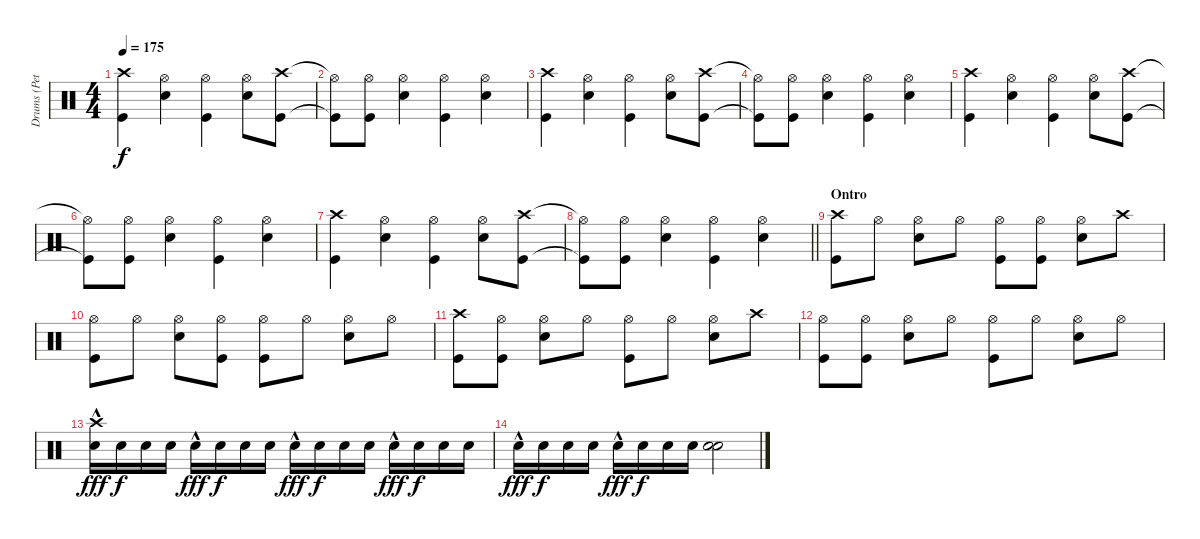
\track ("Drums (Peter Jensen)" "Drums (Pet") {instrument percussion}
\staff {score}
\articulation defaults
\ts (4 4)
\tempo 175
\clef neutral
\ks c
("Crash high (hit)" "Kick (hit)").4{dy f} ("Hi-Hat (open)" "Snare (hit) 2").4 ("Hi-Hat (open)" "Kick (hit)").4 ("Hi-Hat (open)" "Snare (hit) 2").8 ("Crash high (hit)" "Kick (hit)").8 |
("Hi-Hat (open)"{t} "Kick (hit)"{t}).8 ("Hi-Hat (open)" "Kick (hit)").8 ("Hi-Hat (open)" "Snare (hit) 2").4 ("Hi-Hat (open)" "Kick (hit)").4 ("Hi-Hat (open)" "Snare (hit) 2").4 |
("Crash high (hit)" "Kick (hit)").4 ("Hi-Hat (open)" "Snare (hit) 2").4 ("Hi-Hat (open)" "Kick (hit)").4 ("Hi-Hat (open)" "Snare (hit) 2").8 ("Crash high (hit)" "Kick (hit)").8 |
("Hi-Hat (open)"{t} "Kick (hit)"{t}).8 ("Hi-Hat (open)" "Kick (hit)").8 ("Hi-Hat (open)" "Snare (hit) 2").4 ("Hi-Hat (open)" "Kick (hit)").4 ("Hi-Hat (open)" "Snare (hit) 2").4 |
("Crash high (hit)" "Kick (hit)").4 ("Hi-Hat (open)" "Snare (hit) 2").4 ("Hi-Hat (open)" "Kick (hit)").4 ("Hi-Hat (open)" "Snare (hit) 2").8 ("Crash high (hit)" "Kick (hit)").8 |
("Hi-Hat (open)"{t} "Kick (hit)"{t}).8 ("Hi-Hat (open)" "Kick (hit)").8 ("Hi-Hat (open)" "Snare (hit) 2").4 ("Hi-Hat (open)" "Kick (hit)").4 ("Hi-Hat (open)" "Snare (hit) 2").4 |
("Crash high (hit)" "Kick (hit)").4 ("Hi-Hat (open)" "Snare (hit) 2").4 ("Hi-Hat (open)" "Kick (hit)").4 ("Hi-Hat (open)" "Snare (hit) 2").8 ("Crash high (hit)" "Kick (hit)").8 |
\barLineRight lightlight
("Hi-Hat (open)"{t} "Kick (hit)"{t}).8 ("Hi-Hat (open)" "Kick (hit)").8 ("Hi-Hat (open)" "Snare (hit) 2").4 ("Hi-Hat (open)" "Kick (hit)").4 ("Hi-Hat (open)" "Snare (hit) 2").4 |
\section ("" "Ontro")
("Crash high (hit)" "Kick (hit)").8 "Hi-Hat (open)".8 ("Hi-Hat (open)" "Snare (hit) 2").8 "Hi-Hat (open)".8 ("Hi-Hat (open)" "Kick (hit)").8 ("Hi-Hat (open)" "Kick (hit)").8 ("Hi-Hat (open)" "Snare (hit) 2").8 "Crash high (hit)".8 |
("Hi-Hat (open)" "Kick (hit)").8 "Hi-Hat (open)".8 ("Hi-Hat (open)" "Snare (hit) 2").8 ("Hi-Hat (open)" "Kick (hit)").8 ("Hi-Hat (open)" "Kick (hit)").8 "Hi-Hat (open)".8 ("Hi-Hat (open)" "Snare (hit) 2").8 "Hi-Hat (open)".8 |
("Crash high (hit)" "Kick (hit)").8 ("Hi-Hat (open)" "Kick (hit)").8 ("Hi-Hat (open)" "Snare (hit) 2").8 "Hi-Hat (open)".8 ("Hi-Hat (open)" "Kick (hit)").8 "Hi-Hat (open)".8 ("Hi-Hat (open)" "Snare (hit) 2").8 "Crash high (hit)".8 |
("Hi-Hat (open)" "Kick (hit)").8 ("Hi-Hat (open)" "Kick (hit)").8 ("Hi-Hat (open)" "Snare (hit) 2").8 "Hi-Hat (open)".8 ("Hi-Hat (open)" "Kick (hit)").8 "Hi-Hat (open)".8 ("Hi-Hat (open)" "Snare (hit) 2").8 "Hi-Hat (open)".8 |
("Crash high (hit)" "Snare (hit) 2"{hac}).16{dy fff} "Snare (hit) 2".16{dy f} "Snare (hit) 2".16 "Snare (hit) 2".16 "Snare (hit) 2"{hac}.16{dy fff} "Snare (hit) 2".16{dy f} "Snare (hit) 2".16 "Snare (hit) 2".16 "Snare (hit) 2"{hac}.16{dy fff} "Snare (hit) 2".16{dy f} "Snare (hit) 2".16 "Snare (hit) 2".16 "Snare (hit) 2"{hac}.16{dy fff} "Snare (hit) 2".16{dy f} "Snare (hit) 2".16 "Snare (hit) 2".16 |
"Snare (hit) 2"{hac}.16{dy fff} "Snare (hit) 2".16{dy f} "Snare (hit) 2".16 "Snare (hit) 2".16 "Snare (hit) 2"{hac}.16{dy fff} "Snare (hit) 2".16{dy f} "Snare (hit) 2".16 "Snare (hit) 2".16 ("Snare (hit) 2" "Snare (hit) 2").2
